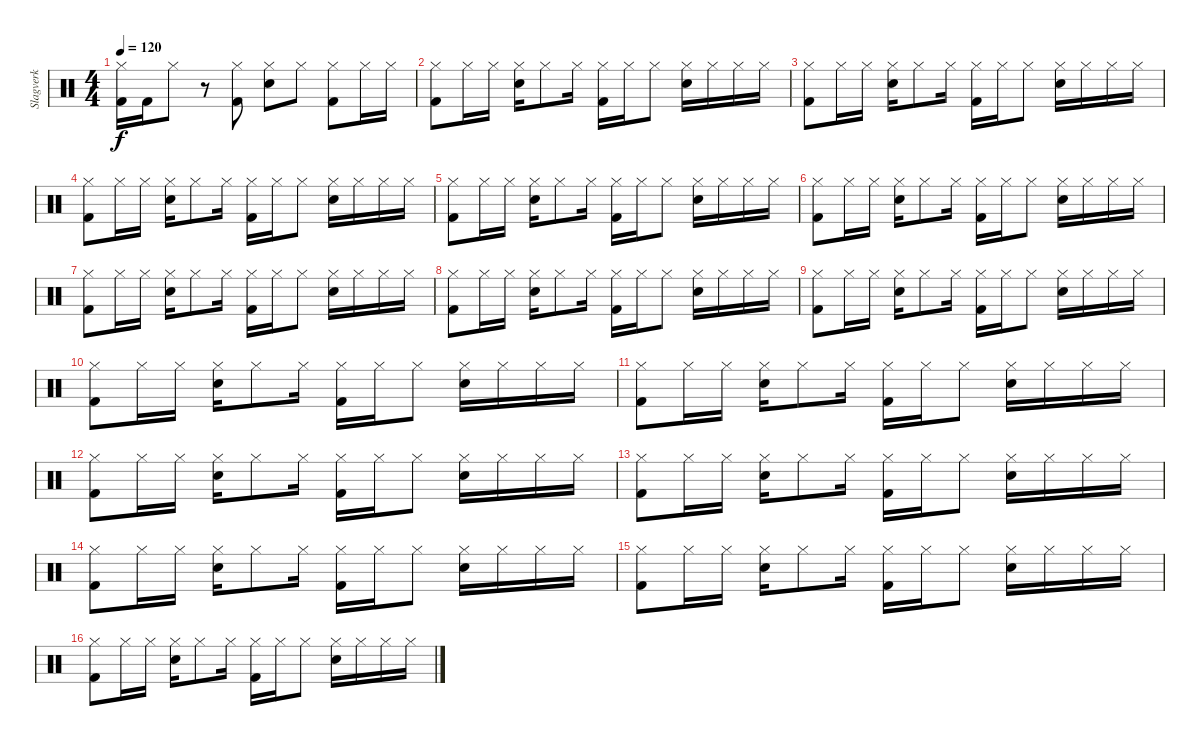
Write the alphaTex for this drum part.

\track ("Slagverk" "Slagverk") {instrument percussion}
\staff {score}
\articulation defaults
\ts (4 4)
\tempo 120
\clef neutral
\ks c
("Hi-Hat (closed)" "Kick (hit) 2").16{dy f} "Kick (hit) 2".16 "Hi-Hat (closed)".8 r.8 ("Hi-Hat (closed)" "Kick (hit) 2").8 ("Hi-Hat (closed)" "Snare (hit) 2").8 "Hi-Hat (closed)".8 ("Hi-Hat (closed)" "Kick (hit) 2").8 "Hi-Hat (closed)".16 "Hi-Hat (closed)".16 |
("Hi-Hat (closed)" "Kick (hit) 2").8 "Hi-Hat (closed)".16 "Hi-Hat (closed)".16 ("Hi-Hat (closed)" "Snare (hit) 2").16 "Hi-Hat (closed)".8 "Hi-Hat (closed)".16 ("Hi-Hat (closed)" "Kick (hit) 2").16 "Hi-Hat (closed)".16 "Hi-Hat (closed)".8 ("Hi-Hat (closed)" "Snare (hit) 2").16 "Hi-Hat (closed)".16 "Hi-Hat (closed)".16 "Hi-Hat (closed)".16 |
("Hi-Hat (closed)" "Kick (hit) 2").8 "Hi-Hat (closed)".16 "Hi-Hat (closed)".16 ("Hi-Hat (closed)" "Snare (hit) 2").16 "Hi-Hat (closed)".8 "Hi-Hat (closed)".16 ("Hi-Hat (closed)" "Kick (hit) 2").16 "Hi-Hat (closed)".16 "Hi-Hat (closed)".8 ("Hi-Hat (closed)" "Snare (hit) 2").16 "Hi-Hat (closed)".16 "Hi-Hat (closed)".16 "Hi-Hat (closed)".16 |
("Hi-Hat (closed)" "Kick (hit) 2").8 "Hi-Hat (closed)".16 "Hi-Hat (closed)".16 ("Hi-Hat (closed)" "Snare (hit) 2").16 "Hi-Hat (closed)".8 "Hi-Hat (closed)".16 ("Hi-Hat (closed)" "Kick (hit) 2").16 "Hi-Hat (closed)".16 "Hi-Hat (closed)".8 ("Hi-Hat (closed)" "Snare (hit) 2").16 "Hi-Hat (closed)".16 "Hi-Hat (closed)".16 "Hi-Hat (closed)".16 |
("Hi-Hat (closed)" "Kick (hit) 2").8 "Hi-Hat (closed)".16 "Hi-Hat (closed)".16 ("Hi-Hat (closed)" "Snare (hit) 2").16 "Hi-Hat (closed)".8 "Hi-Hat (closed)".16 ("Hi-Hat (closed)" "Kick (hit) 2").16 "Hi-Hat (closed)".16 "Hi-Hat (closed)".8 ("Hi-Hat (closed)" "Snare (hit) 2").16 "Hi-Hat (closed)".16 "Hi-Hat (closed)".16 "Hi-Hat (closed)".16 |
("Hi-Hat (closed)" "Kick (hit) 2").8 "Hi-Hat (closed)".16 "Hi-Hat (closed)".16 ("Hi-Hat (closed)" "Snare (hit) 2").16 "Hi-Hat (closed)".8 "Hi-Hat (closed)".16 ("Hi-Hat (closed)" "Kick (hit) 2").16 "Hi-Hat (closed)".16 "Hi-Hat (closed)".8 ("Hi-Hat (closed)" "Snare (hit) 2").16 "Hi-Hat (closed)".16 "Hi-Hat (closed)".16 "Hi-Hat (closed)".16 |
("Hi-Hat (closed)" "Kick (hit) 2").8 "Hi-Hat (closed)".16 "Hi-Hat (closed)".16 ("Hi-Hat (closed)" "Snare (hit) 2").16 "Hi-Hat (closed)".8 "Hi-Hat (closed)".16 ("Hi-Hat (closed)" "Kick (hit) 2").16 "Hi-Hat (closed)".16 "Hi-Hat (closed)".8 ("Hi-Hat (closed)" "Snare (hit) 2").16 "Hi-Hat (closed)".16 "Hi-Hat (closed)".16 "Hi-Hat (closed)".16 |
("Hi-Hat (closed)" "Kick (hit) 2").8 "Hi-Hat (closed)".16 "Hi-Hat (closed)".16 ("Hi-Hat (closed)" "Snare (hit) 2").16 "Hi-Hat (closed)".8 "Hi-Hat (closed)".16 ("Hi-Hat (closed)" "Kick (hit) 2").16 "Hi-Hat (closed)".16 "Hi-Hat (closed)".8 ("Hi-Hat (closed)" "Snare (hit) 2").16 "Hi-Hat (closed)".16 "Hi-Hat (closed)".16 "Hi-Hat (closed)".16 |
("Hi-Hat (closed)" "Kick (hit) 2").8 "Hi-Hat (closed)".16 "Hi-Hat (closed)".16 ("Hi-Hat (closed)" "Snare (hit) 2").16 "Hi-Hat (closed)".8 "Hi-Hat (closed)".16 ("Hi-Hat (closed)" "Kick (hit) 2").16 "Hi-Hat (closed)".16 "Hi-Hat (closed)".8 ("Hi-Hat (closed)" "Snare (hit) 2").16 "Hi-Hat (closed)".16 "Hi-Hat (closed)".16 "Hi-Hat (closed)".16 |
("Hi-Hat (closed)" "Kick (hit) 2").8 "Hi-Hat (closed)".16 "Hi-Hat (closed)".16 ("Hi-Hat (closed)" "Snare (hit) 2").16 "Hi-Hat (closed)".8 "Hi-Hat (closed)".16 ("Hi-Hat (closed)" "Kick (hit) 2").16 "Hi-Hat (closed)".16 "Hi-Hat (closed)".8 ("Hi-Hat (closed)" "Snare (hit) 2").16 "Hi-Hat (closed)".16 "Hi-Hat (closed)".16 "Hi-Hat (closed)".16 |
("Hi-Hat (closed)" "Kick (hit) 2").8 "Hi-Hat (closed)".16 "Hi-Hat (closed)".16 ("Hi-Hat (closed)" "Snare (hit) 2").16 "Hi-Hat (closed)".8 "Hi-Hat (closed)".16 ("Hi-Hat (closed)" "Kick (hit) 2").16 "Hi-Hat (closed)".16 "Hi-Hat (closed)".8 ("Hi-Hat (closed)" "Snare (hit) 2").16 "Hi-Hat (closed)".16 "Hi-Hat (closed)".16 "Hi-Hat (closed)".16 |
("Hi-Hat (closed)" "Kick (hit) 2").8 "Hi-Hat (closed)".16 "Hi-Hat (closed)".16 ("Hi-Hat (closed)" "Snare (hit) 2").16 "Hi-Hat (closed)".8 "Hi-Hat (closed)".16 ("Hi-Hat (closed)" "Kick (hit) 2").16 "Hi-Hat (closed)".16 "Hi-Hat (closed)".8 ("Hi-Hat (closed)" "Snare (hit) 2").16 "Hi-Hat (closed)".16 "Hi-Hat (closed)".16 "Hi-Hat (closed)".16 |
("Hi-Hat (closed)" "Kick (hit) 2").8 "Hi-Hat (closed)".16 "Hi-Hat (closed)".16 ("Hi-Hat (closed)" "Snare (hit) 2").16 "Hi-Hat (closed)".8 "Hi-Hat (closed)".16 ("Hi-Hat (closed)" "Kick (hit) 2").16 "Hi-Hat (closed)".16 "Hi-Hat (closed)".8 ("Hi-Hat (closed)" "Snare (hit) 2").16 "Hi-Hat (closed)".16 "Hi-Hat (closed)".16 "Hi-Hat (closed)".16 |
("Hi-Hat (closed)" "Kick (hit) 2").8 "Hi-Hat (closed)".16 "Hi-Hat (closed)".16 ("Hi-Hat (closed)" "Snare (hit) 2").16 "Hi-Hat (closed)".8 "Hi-Hat (closed)".16 ("Hi-Hat (closed)" "Kick (hit) 2").16 "Hi-Hat (closed)".16 "Hi-Hat (closed)".8 ("Hi-Hat (closed)" "Snare (hit) 2").16 "Hi-Hat (closed)".16 "Hi-Hat (closed)".16 "Hi-Hat (closed)".16 |
("Hi-Hat (closed)" "Kick (hit) 2").8 "Hi-Hat (closed)".16 "Hi-Hat (closed)".16 ("Hi-Hat (closed)" "Snare (hit) 2").16 "Hi-Hat (closed)".8 "Hi-Hat (closed)".16 ("Hi-Hat (closed)" "Kick (hit) 2").16 "Hi-Hat (closed)".16 "Hi-Hat (closed)".8 ("Hi-Hat (closed)" "Snare (hit) 2").16 "Hi-Hat (closed)".16 "Hi-Hat (closed)".16 "Hi-Hat (closed)".16 |
("Hi-Hat (closed)" "Kick (hit) 2").8 "Hi-Hat (closed)".16 "Hi-Hat (closed)".16 ("Hi-Hat (closed)" "Snare (hit) 2").16 "Hi-Hat (closed)".8 "Hi-Hat (closed)".16 ("Hi-Hat (closed)" "Kick (hit) 2").16 "Hi-Hat (closed)".16 "Hi-Hat (closed)".8 ("Hi-Hat (closed)" "Snare (hit) 2").16 "Hi-Hat (closed)".16 "Hi-Hat (closed)".16 "Hi-Hat (closed)".16
